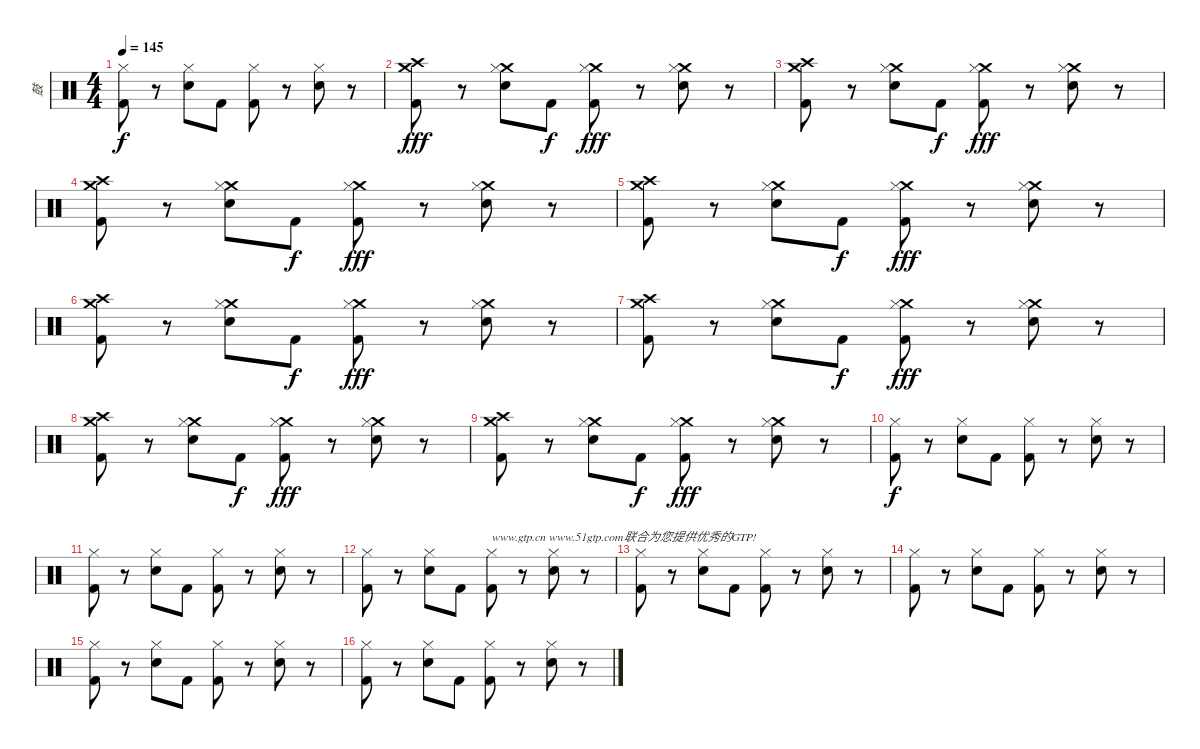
\track ("鼓" "鼓") {instrument percussion}
\staff {score}
\articulation defaults
\ts (4 4)
\tempo 145
\clef neutral
\ks c
("Kick (hit) 2" "Hi-Hat (closed)").8{dy f} r.8 ("Snare (hit) 2" "Hi-Hat (closed)").8 "Kick (hit) 2".8 ("Kick (hit) 2" "Hi-Hat (closed)").8 r.8 ("Snare (hit) 2" "Hi-Hat (closed)").8 r.8 |
("Kick (hit) 2" "Crash medium (hit)" "Crash high (hit)").8{dy fff} r.8 ("Snare (hit) 2" "Crash medium (hit)" "Hi-Hat (closed)").8 "Kick (hit) 2".8{dy f} ("Kick (hit) 2" "Crash medium (hit)" "Hi-Hat (closed)").8{dy fff} r.8 ("Snare (hit) 2" "Crash medium (hit)" "Hi-Hat (closed)").8 r.8 |
("Kick (hit) 2" "Crash medium (hit)" "Crash high (hit)").8 r.8 ("Snare (hit) 2" "Crash medium (hit)" "Hi-Hat (closed)").8 "Kick (hit) 2".8{dy f} ("Kick (hit) 2" "Crash medium (hit)" "Hi-Hat (closed)").8{dy fff} r.8 ("Snare (hit) 2" "Crash medium (hit)" "Hi-Hat (closed)").8 r.8 |
("Kick (hit) 2" "Crash medium (hit)" "Crash high (hit)").8 r.8 ("Snare (hit) 2" "Crash medium (hit)" "Hi-Hat (closed)").8 "Kick (hit) 2".8{dy f} ("Kick (hit) 2" "Crash medium (hit)" "Hi-Hat (closed)").8{dy fff} r.8 ("Snare (hit) 2" "Crash medium (hit)" "Hi-Hat (closed)").8 r.8 |
("Kick (hit) 2" "Crash medium (hit)" "Crash high (hit)").8 r.8 ("Snare (hit) 2" "Crash medium (hit)" "Hi-Hat (closed)").8 "Kick (hit) 2".8{dy f} ("Kick (hit) 2" "Crash medium (hit)" "Hi-Hat (closed)").8{dy fff} r.8 ("Snare (hit) 2" "Crash medium (hit)" "Hi-Hat (closed)").8 r.8 |
("Kick (hit) 2" "Crash medium (hit)" "Crash high (hit)").8 r.8 ("Snare (hit) 2" "Crash medium (hit)" "Hi-Hat (closed)").8 "Kick (hit) 2".8{dy f} ("Kick (hit) 2" "Crash medium (hit)" "Hi-Hat (closed)").8{dy fff} r.8 ("Snare (hit) 2" "Crash medium (hit)" "Hi-Hat (closed)").8 r.8 |
("Kick (hit) 2" "Crash medium (hit)" "Crash high (hit)").8 r.8 ("Snare (hit) 2" "Crash medium (hit)" "Hi-Hat (closed)").8 "Kick (hit) 2".8{dy f} ("Kick (hit) 2" "Crash medium (hit)" "Hi-Hat (closed)").8{dy fff} r.8 ("Snare (hit) 2" "Crash medium (hit)" "Hi-Hat (closed)").8 r.8 |
("Kick (hit) 2" "Crash medium (hit)" "Crash high (hit)").8 r.8 ("Snare (hit) 2" "Crash medium (hit)" "Hi-Hat (closed)").8 "Kick (hit) 2".8{dy f} ("Kick (hit) 2" "Crash medium (hit)" "Hi-Hat (closed)").8{dy fff} r.8 ("Snare (hit) 2" "Crash medium (hit)" "Hi-Hat (closed)").8 r.8 |
("Kick (hit) 2" "Crash medium (hit)" "Crash high (hit)").8 r.8 ("Snare (hit) 2" "Crash medium (hit)" "Hi-Hat (closed)").8 "Kick (hit) 2".8{dy f} ("Kick (hit) 2" "Crash medium (hit)" "Hi-Hat (closed)").8{dy fff} r.8 ("Snare (hit) 2" "Crash medium (hit)" "Hi-Hat (closed)").8 r.8 |
("Kick (hit) 2" "Hi-Hat (closed)").8{dy f} r.8 ("Snare (hit) 2" "Hi-Hat (closed)").8 "Kick (hit) 2".8 ("Kick (hit) 2" "Hi-Hat (closed)").8 r.8 ("Snare (hit) 2" "Hi-Hat (closed)").8 r.8 |
("Kick (hit) 2" "Hi-Hat (closed)").8 r.8 ("Snare (hit) 2" "Hi-Hat (closed)").8 "Kick (hit) 2".8 ("Kick (hit) 2" "Hi-Hat (closed)").8 r.8 ("Snare (hit) 2" "Hi-Hat (closed)").8 r.8 |
("Kick (hit) 2" "Hi-Hat (closed)").8 r.8 ("Snare (hit) 2" "Hi-Hat (closed)").8 "Kick (hit) 2".8 ("Kick (hit) 2" "Hi-Hat (closed)").8{txt "www.gtp.cn www.51gtp.com联合为您提供优秀的GTP!"} r.8 ("Snare (hit) 2" "Hi-Hat (closed)").8 r.8 |
("Kick (hit) 2" "Hi-Hat (closed)").8 r.8 ("Snare (hit) 2" "Hi-Hat (closed)").8 "Kick (hit) 2".8 ("Kick (hit) 2" "Hi-Hat (closed)").8 r.8 ("Snare (hit) 2" "Hi-Hat (closed)").8 r.8 |
("Kick (hit) 2" "Hi-Hat (closed)").8 r.8 ("Snare (hit) 2" "Hi-Hat (closed)").8 "Kick (hit) 2".8 ("Kick (hit) 2" "Hi-Hat (closed)").8 r.8 ("Snare (hit) 2" "Hi-Hat (closed)").8 r.8 |
("Kick (hit) 2" "Hi-Hat (closed)").8 r.8 ("Snare (hit) 2" "Hi-Hat (closed)").8 "Kick (hit) 2".8 ("Kick (hit) 2" "Hi-Hat (closed)").8 r.8 ("Snare (hit) 2" "Hi-Hat (closed)").8 r.8 |
("Kick (hit) 2" "Hi-Hat (closed)").8 r.8 ("Snare (hit) 2" "Hi-Hat (closed)").8 "Kick (hit) 2".8 ("Kick (hit) 2" "Hi-Hat (closed)").8 r.8 ("Snare (hit) 2" "Hi-Hat (closed)").8 r.8
